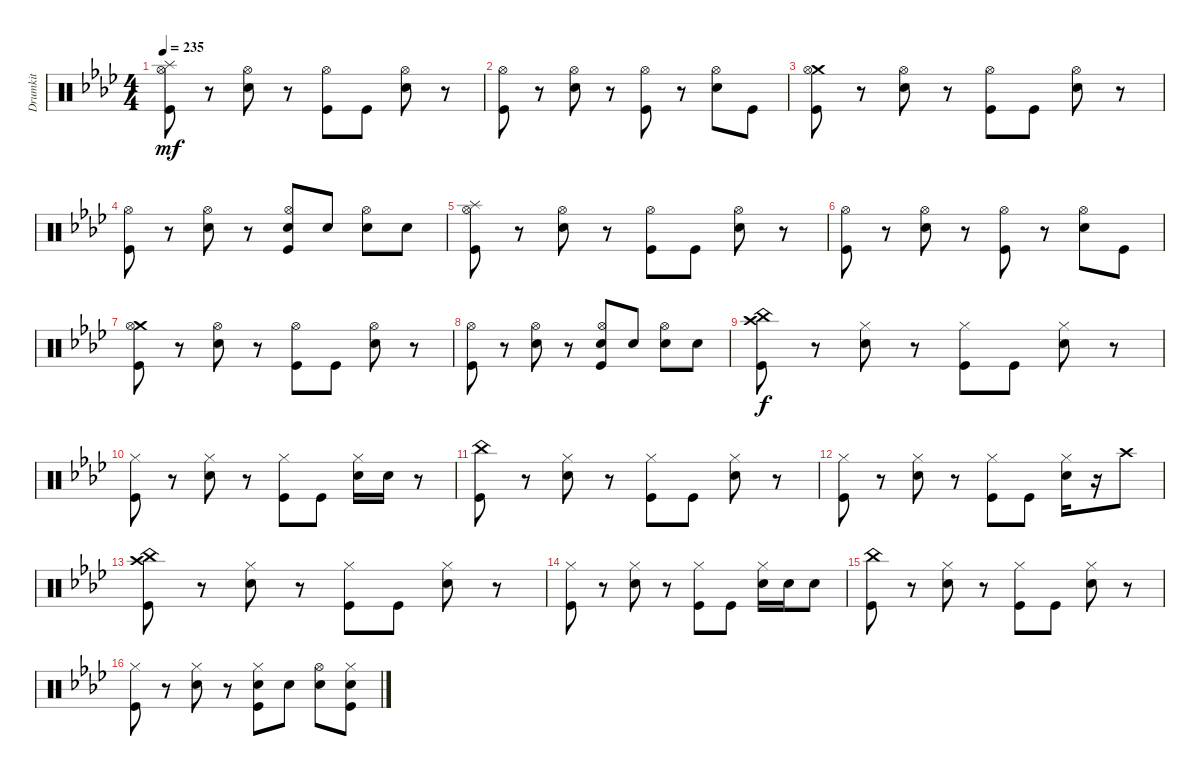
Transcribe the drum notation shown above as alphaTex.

\track ("Drumkit" "Drumkit") {instrument percussion}
\staff {score}
\articulation defaults
\ts (4 4)
\tempo 235
\clef neutral
\ks ab
("Kick (hit)" "Splash (hit)" "Hi-Hat (open)").8{dy mf} r.8 ("Electric Snare (hit)" "Hi-Hat (open)").8 r.8 ("Kick (hit)" "Hi-Hat (open)").8 "Kick (hit)".8 ("Electric Snare (hit)" "Hi-Hat (open)").8 r.8 |
("Kick (hit)" "Hi-Hat (open)").8 r.8 ("Electric Snare (hit)" "Hi-Hat (open)").8 r.8 ("Kick (hit)" "Hi-Hat (open)").8 r.8 ("Electric Snare (hit)" "Hi-Hat (open)").8 "Kick (hit)".8 |
("Kick (hit)" "Crash medium (hit)" "Hi-Hat (open)").8 r.8 ("Electric Snare (hit)" "Hi-Hat (open)").8 r.8 ("Kick (hit)" "Hi-Hat (open)").8 "Kick (hit)".8 ("Electric Snare (hit)" "Hi-Hat (open)").8 r.8 |
("Kick (hit)" "Hi-Hat (open)").8 r.8 ("Electric Snare (hit)" "Hi-Hat (open)").8 r.8 ("Kick (hit)" "Electric Snare (hit)" "Hi-Hat (open)").8 "Electric Snare (hit)".8 ("Electric Snare (hit)" "Hi-Hat (open)").8 "Electric Snare (hit)".8 |
("Kick (hit)" "Splash (hit)" "Hi-Hat (open)").8 r.8 ("Electric Snare (hit)" "Hi-Hat (open)").8 r.8 ("Kick (hit)" "Hi-Hat (open)").8 "Kick (hit)".8 ("Electric Snare (hit)" "Hi-Hat (open)").8 r.8 |
("Kick (hit)" "Hi-Hat (open)").8 r.8 ("Electric Snare (hit)" "Hi-Hat (open)").8 r.8 ("Kick (hit)" "Hi-Hat (open)").8 r.8 ("Electric Snare (hit)" "Hi-Hat (open)").8 "Kick (hit)".8 |
("Kick (hit)" "Crash medium (hit)" "Hi-Hat (open)").8 r.8 ("Electric Snare (hit)" "Hi-Hat (open)").8 r.8 ("Kick (hit)" "Hi-Hat (open)").8 "Kick (hit)".8 ("Electric Snare (hit)" "Hi-Hat (open)").8 r.8 |
("Kick (hit)" "Hi-Hat (open)").8 r.8 ("Electric Snare (hit)" "Hi-Hat (open)").8 r.8 ("Kick (hit)" "Electric Snare (hit)" "Hi-Hat (open)").8 "Electric Snare (hit)".8 ("Electric Snare (hit)" "Hi-Hat (open)").8 "Electric Snare (hit)".8 |
("Crash high (hit)" "China (hit)" "Kick (hit)").8{dy f} r.8 ("Hi-Hat (closed)" "Electric Snare (hit)").8 r.8 ("Hi-Hat (closed)" "Kick (hit)").8 "Kick (hit)".8 ("Hi-Hat (closed)" "Electric Snare (hit)").8 r.8 |
("Hi-Hat (closed)" "Kick (hit)").8 r.8 ("Hi-Hat (closed)" "Electric Snare (hit)").8 r.8 ("Hi-Hat (closed)" "Kick (hit)").8 "Kick (hit)".8 ("Hi-Hat (closed)" "Electric Snare (hit)").16 "Electric Snare (hit)".16 r.8 |
("China (hit)" "Kick (hit)").8 r.8 ("Hi-Hat (closed)" "Electric Snare (hit)").8 r.8 ("Hi-Hat (closed)" "Kick (hit)").8 "Kick (hit)".8 ("Hi-Hat (closed)" "Electric Snare (hit)").8 r.8 |
("Hi-Hat (closed)" "Kick (hit)").8 r.8 ("Hi-Hat (closed)" "Electric Snare (hit)").8 r.8 ("Hi-Hat (closed)" "Kick (hit)").8 "Kick (hit)".8 ("Hi-Hat (closed)" "Electric Snare (hit)").16 r.16 "Crash high (hit)".8 |
("Crash high (hit)" "China (hit)" "Kick (hit)").8 r.8 ("Hi-Hat (closed)" "Electric Snare (hit)").8 r.8 ("Hi-Hat (closed)" "Kick (hit)").8 "Kick (hit)".8 ("Hi-Hat (closed)" "Electric Snare (hit)").8 r.8 |
("Hi-Hat (closed)" "Kick (hit)").8 r.8 ("Hi-Hat (closed)" "Electric Snare (hit)").8 r.8 ("Hi-Hat (closed)" "Kick (hit)").8 "Kick (hit)".8 ("Hi-Hat (closed)" "Electric Snare (hit)").16 "Electric Snare (hit)".16 "Electric Snare (hit)".8 |
("China (hit)" "Kick (hit)").8 r.8 ("Hi-Hat (closed)" "Electric Snare (hit)").8 r.8 ("Hi-Hat (closed)" "Kick (hit)").8 "Kick (hit)".8 ("Hi-Hat (closed)" "Electric Snare (hit)").8 r.8 |
("Hi-Hat (closed)" "Kick (hit)").8 r.8 ("Hi-Hat (closed)" "Electric Snare (hit)").8 r.8 ("Hi-Hat (closed)" "Electric Snare (hit)" "Kick (hit)").8 "Electric Snare (hit)".8 ("Hi-Hat (open)" "Electric Snare (hit)").8 ("Hi-Hat (closed)" "Electric Snare (hit)" "Kick (hit)").8
